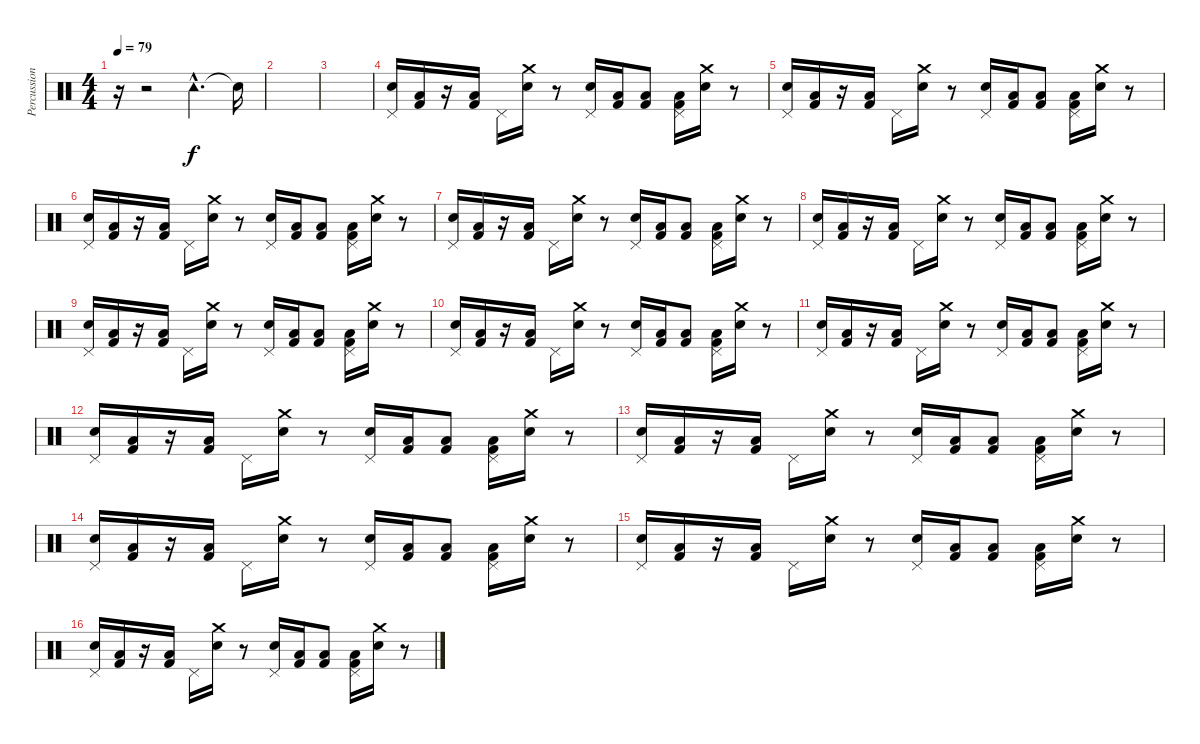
\track ("Percussion" "Percussion") {instrument percussion}
\staff {score}
\articulation defaults
\ts (4 4)
\tempo 79
\clef neutral
\ks c
r.16{dy f} r.2 "Tambourine (hit)"{hac}.4{d} "Snare (hit)"{t}.16 |
|
|
("Pedal Hi-Hat (hit)" "Electric Snare (hit)").16 ("Low Floor Tom (hit)" "Kick (hit) 2").16 r.16 ("Low Floor Tom (hit)" "Kick (hit) 2").16 "Pedal Hi-Hat (hit)".16 ("Crash medium (hit)" "Electric Snare (hit)").16 r.8 ("Pedal Hi-Hat (hit)" "Electric Snare (hit)").16 ("Low Floor Tom (hit)" "Kick (hit) 2").16 ("Low Floor Tom (hit)" "Kick (hit) 2").8 ("Pedal Hi-Hat (hit)" "Low Floor Tom (hit)" "Kick (hit) 2").16 ("Crash medium (hit)" "Electric Snare (hit)").16 r.8 |
("Pedal Hi-Hat (hit)" "Electric Snare (hit)").16 ("Low Floor Tom (hit)" "Kick (hit) 2").16 r.16 ("Low Floor Tom (hit)" "Kick (hit) 2").16 "Pedal Hi-Hat (hit)".16 ("Crash medium (hit)" "Electric Snare (hit)").16 r.8 ("Pedal Hi-Hat (hit)" "Electric Snare (hit)").16 ("Low Floor Tom (hit)" "Kick (hit) 2").16 ("Low Floor Tom (hit)" "Kick (hit) 2").8 ("Pedal Hi-Hat (hit)" "Low Floor Tom (hit)" "Kick (hit) 2").16 ("Crash medium (hit)" "Electric Snare (hit)").16 r.8 |
("Pedal Hi-Hat (hit)" "Electric Snare (hit)").16 ("Low Floor Tom (hit)" "Kick (hit) 2").16 r.16 ("Low Floor Tom (hit)" "Kick (hit) 2").16 "Pedal Hi-Hat (hit)".16 ("Crash medium (hit)" "Electric Snare (hit)").16 r.8 ("Pedal Hi-Hat (hit)" "Electric Snare (hit)").16 ("Low Floor Tom (hit)" "Kick (hit) 2").16 ("Low Floor Tom (hit)" "Kick (hit) 2").8 ("Pedal Hi-Hat (hit)" "Low Floor Tom (hit)" "Kick (hit) 2").16 ("Crash medium (hit)" "Electric Snare (hit)").16 r.8 |
("Pedal Hi-Hat (hit)" "Electric Snare (hit)").16 ("Low Floor Tom (hit)" "Kick (hit) 2").16 r.16 ("Low Floor Tom (hit)" "Kick (hit) 2").16 "Pedal Hi-Hat (hit)".16 ("Crash medium (hit)" "Electric Snare (hit)").16 r.8 ("Pedal Hi-Hat (hit)" "Electric Snare (hit)").16 ("Low Floor Tom (hit)" "Kick (hit) 2").16 ("Low Floor Tom (hit)" "Kick (hit) 2").8 ("Pedal Hi-Hat (hit)" "Low Floor Tom (hit)" "Kick (hit) 2").16 ("Crash medium (hit)" "Electric Snare (hit)").16 r.8 |
("Pedal Hi-Hat (hit)" "Electric Snare (hit)").16 ("Low Floor Tom (hit)" "Kick (hit) 2").16 r.16 ("Low Floor Tom (hit)" "Kick (hit) 2").16 "Pedal Hi-Hat (hit)".16 ("Crash medium (hit)" "Electric Snare (hit)").16 r.8 ("Pedal Hi-Hat (hit)" "Electric Snare (hit)").16 ("Low Floor Tom (hit)" "Kick (hit) 2").16 ("Low Floor Tom (hit)" "Kick (hit) 2").8 ("Pedal Hi-Hat (hit)" "Low Floor Tom (hit)" "Kick (hit) 2").16 ("Crash medium (hit)" "Electric Snare (hit)").16 r.8 |
("Pedal Hi-Hat (hit)" "Electric Snare (hit)").16 ("Low Floor Tom (hit)" "Kick (hit) 2").16 r.16 ("Low Floor Tom (hit)" "Kick (hit) 2").16 "Pedal Hi-Hat (hit)".16 ("Crash medium (hit)" "Electric Snare (hit)").16 r.8 ("Pedal Hi-Hat (hit)" "Electric Snare (hit)").16 ("Low Floor Tom (hit)" "Kick (hit) 2").16 ("Low Floor Tom (hit)" "Kick (hit) 2").8 ("Pedal Hi-Hat (hit)" "Low Floor Tom (hit)" "Kick (hit) 2").16 ("Crash medium (hit)" "Electric Snare (hit)").16 r.8 |
("Pedal Hi-Hat (hit)" "Electric Snare (hit)").16 ("Low Floor Tom (hit)" "Kick (hit) 2").16 r.16 ("Low Floor Tom (hit)" "Kick (hit) 2").16 "Pedal Hi-Hat (hit)".16 ("Crash medium (hit)" "Electric Snare (hit)").16 r.8 ("Pedal Hi-Hat (hit)" "Electric Snare (hit)").16 ("Low Floor Tom (hit)" "Kick (hit) 2").16 ("Low Floor Tom (hit)" "Kick (hit) 2").8 ("Pedal Hi-Hat (hit)" "Low Floor Tom (hit)" "Kick (hit) 2").16 ("Crash medium (hit)" "Electric Snare (hit)").16 r.8 |
("Pedal Hi-Hat (hit)" "Electric Snare (hit)").16 ("Low Floor Tom (hit)" "Kick (hit) 2").16 r.16 ("Low Floor Tom (hit)" "Kick (hit) 2").16 "Pedal Hi-Hat (hit)".16 ("Crash medium (hit)" "Electric Snare (hit)").16 r.8 ("Pedal Hi-Hat (hit)" "Electric Snare (hit)").16 ("Low Floor Tom (hit)" "Kick (hit) 2").16 ("Low Floor Tom (hit)" "Kick (hit) 2").8 ("Pedal Hi-Hat (hit)" "Low Floor Tom (hit)" "Kick (hit) 2").16 ("Crash medium (hit)" "Electric Snare (hit)").16 r.8 |
("Pedal Hi-Hat (hit)" "Electric Snare (hit)").16 ("Low Floor Tom (hit)" "Kick (hit) 2").16 r.16 ("Low Floor Tom (hit)" "Kick (hit) 2").16 "Pedal Hi-Hat (hit)".16 ("Crash medium (hit)" "Electric Snare (hit)").16 r.8 ("Pedal Hi-Hat (hit)" "Electric Snare (hit)").16 ("Low Floor Tom (hit)" "Kick (hit) 2").16 ("Low Floor Tom (hit)" "Kick (hit) 2").8 ("Pedal Hi-Hat (hit)" "Low Floor Tom (hit)" "Kick (hit) 2").16 ("Crash medium (hit)" "Electric Snare (hit)").16 r.8 |
("Pedal Hi-Hat (hit)" "Electric Snare (hit)").16 ("Low Floor Tom (hit)" "Kick (hit) 2").16 r.16 ("Low Floor Tom (hit)" "Kick (hit) 2").16 "Pedal Hi-Hat (hit)".16 ("Crash medium (hit)" "Electric Snare (hit)").16 r.8 ("Pedal Hi-Hat (hit)" "Electric Snare (hit)").16 ("Low Floor Tom (hit)" "Kick (hit) 2").16 ("Low Floor Tom (hit)" "Kick (hit) 2").8 ("Pedal Hi-Hat (hit)" "Low Floor Tom (hit)" "Kick (hit) 2").16 ("Crash medium (hit)" "Electric Snare (hit)").16 r.8 |
("Pedal Hi-Hat (hit)" "Electric Snare (hit)").16 ("Low Floor Tom (hit)" "Kick (hit) 2").16 r.16 ("Low Floor Tom (hit)" "Kick (hit) 2").16 "Pedal Hi-Hat (hit)".16 ("Crash medium (hit)" "Electric Snare (hit)").16 r.8 ("Pedal Hi-Hat (hit)" "Electric Snare (hit)").16 ("Low Floor Tom (hit)" "Kick (hit) 2").16 ("Low Floor Tom (hit)" "Kick (hit) 2").8 ("Pedal Hi-Hat (hit)" "Low Floor Tom (hit)" "Kick (hit) 2").16 ("Crash medium (hit)" "Electric Snare (hit)").16 r.8 |
("Pedal Hi-Hat (hit)" "Electric Snare (hit)").16 ("Low Floor Tom (hit)" "Kick (hit) 2").16 r.16 ("Low Floor Tom (hit)" "Kick (hit) 2").16 "Pedal Hi-Hat (hit)".16 ("Crash medium (hit)" "Electric Snare (hit)").16 r.8 ("Pedal Hi-Hat (hit)" "Electric Snare (hit)").16 ("Low Floor Tom (hit)" "Kick (hit) 2").16 ("Low Floor Tom (hit)" "Kick (hit) 2").8 ("Pedal Hi-Hat (hit)" "Low Floor Tom (hit)" "Kick (hit) 2").16 ("Crash medium (hit)" "Electric Snare (hit)").16 r.8 |
("Pedal Hi-Hat (hit)" "Electric Snare (hit)").16 ("Low Floor Tom (hit)" "Kick (hit) 2").16 r.16 ("Low Floor Tom (hit)" "Kick (hit) 2").16 "Pedal Hi-Hat (hit)".16 ("Crash medium (hit)" "Electric Snare (hit)").16 r.8 ("Pedal Hi-Hat (hit)" "Electric Snare (hit)").16 ("Low Floor Tom (hit)" "Kick (hit) 2").16 ("Low Floor Tom (hit)" "Kick (hit) 2").8 ("Pedal Hi-Hat (hit)" "Low Floor Tom (hit)" "Kick (hit) 2").16 ("Crash medium (hit)" "Electric Snare (hit)").16 r.8
